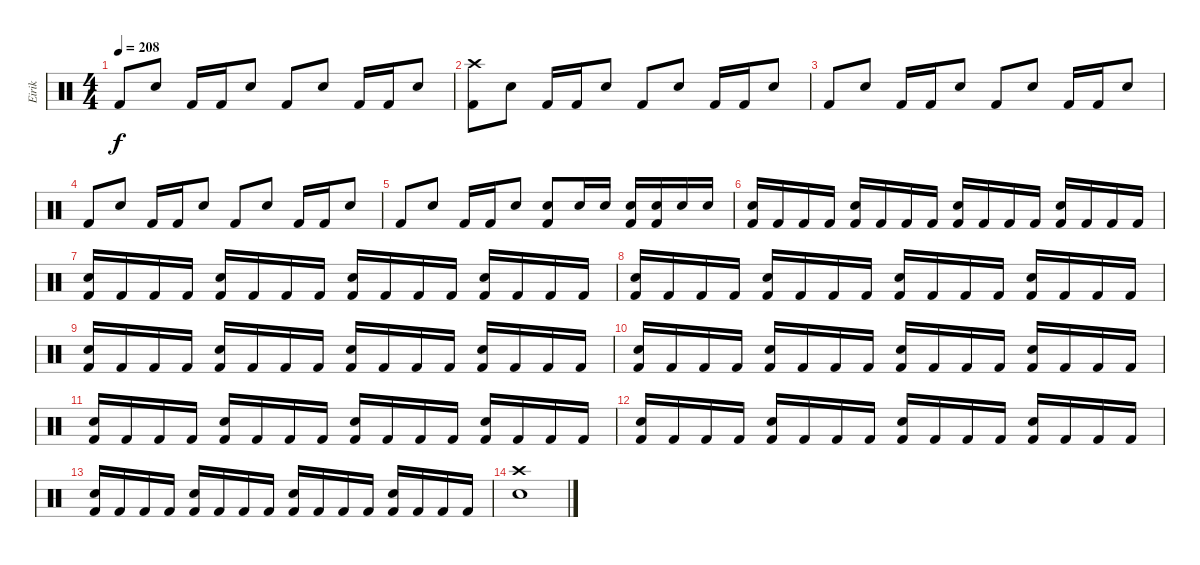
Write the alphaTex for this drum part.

\track ("Eirik" "Eirik") {instrument percussion}
\staff {score}
\articulation defaults
\ts (4 4)
\tempo 208
\clef neutral
\ks c "Kick (hit) 2".8{dy f} "Snare (hit) 2".8 "Kick (hit) 2".16 "Kick (hit) 2".16 "Snare (hit) 2".8 "Kick (hit) 2".8 "Snare (hit) 2".8 "Kick (hit) 2".16 "Kick (hit) 2".16 "Snare (hit) 2".8
|
("Crash high (hit)" "Kick (hit) 2").8 "Snare (hit) 2".8 "Kick (hit) 2".16 "Kick (hit) 2".16 "Snare (hit) 2".8 "Kick (hit) 2".8 "Snare (hit) 2".8 "Kick (hit) 2".16 "Kick (hit) 2".16 "Snare (hit) 2".8 |
"Kick (hit) 2".8 "Snare (hit) 2".8 "Kick (hit) 2".16 "Kick (hit) 2".16 "Snare (hit) 2".8 "Kick (hit) 2".8 "Snare (hit) 2".8 "Kick (hit) 2".16 "Kick (hit) 2".16 "Snare (hit) 2".8 |
"Kick (hit) 2".8 "Snare (hit) 2".8 "Kick (hit) 2".16 "Kick (hit) 2".16 "Snare (hit) 2".8 "Kick (hit) 2".8 "Snare (hit) 2".8 "Kick (hit) 2".16 "Kick (hit) 2".16 "Snare (hit) 2".8 |
"Kick (hit) 2".8 "Snare (hit) 2".8 "Kick (hit) 2".16 "Kick (hit) 2".16 "Snare (hit) 2".8 ("Snare (hit) 2" "Kick (hit) 2").8 "Snare (hit) 2".16 "Snare (hit) 2".16 ("Snare (hit) 2" "Kick (hit) 2").16 ("Snare (hit) 2" "Kick (hit) 2").16 "Snare (hit) 2".16 "Snare (hit) 2".16 |
("Snare (hit) 2" "Kick (hit) 2").16 "Kick (hit) 2".16 "Kick (hit) 2".16 "Kick (hit) 2".16 ("Snare (hit) 2" "Kick (hit) 2").16 "Kick (hit) 2".16 "Kick (hit) 2".16 "Kick (hit) 2".16 ("Snare (hit) 2" "Kick (hit) 2").16 "Kick (hit) 2".16 "Kick (hit) 2".16 "Kick (hit) 2".16 ("Snare (hit) 2" "Kick (hit) 2").16 "Kick (hit) 2".16 "Kick (hit) 2".16 "Kick (hit) 2".16 |
("Snare (hit) 2" "Kick (hit) 2").16 "Kick (hit) 2".16 "Kick (hit) 2".16 "Kick (hit) 2".16 ("Snare (hit) 2" "Kick (hit) 2").16 "Kick (hit) 2".16 "Kick (hit) 2".16 "Kick (hit) 2".16 ("Snare (hit) 2" "Kick (hit) 2").16 "Kick (hit) 2".16 "Kick (hit) 2".16 "Kick (hit) 2".16 ("Snare (hit) 2" "Kick (hit) 2").16 "Kick (hit) 2".16 "Kick (hit) 2".16 "Kick (hit) 2".16 |
("Snare (hit) 2" "Kick (hit) 2").16 "Kick (hit) 2".16 "Kick (hit) 2".16 "Kick (hit) 2".16 ("Snare (hit) 2" "Kick (hit) 2").16 "Kick (hit) 2".16 "Kick (hit) 2".16 "Kick (hit) 2".16 ("Snare (hit) 2" "Kick (hit) 2").16 "Kick (hit) 2".16 "Kick (hit) 2".16 "Kick (hit) 2".16 ("Snare (hit) 2" "Kick (hit) 2").16 "Kick (hit) 2".16 "Kick (hit) 2".16 "Kick (hit) 2".16 |
("Snare (hit) 2" "Kick (hit) 2").16 "Kick (hit) 2".16 "Kick (hit) 2".16 "Kick (hit) 2".16 ("Snare (hit) 2" "Kick (hit) 2").16 "Kick (hit) 2".16 "Kick (hit) 2".16 "Kick (hit) 2".16 ("Snare (hit) 2" "Kick (hit) 2").16 "Kick (hit) 2".16 "Kick (hit) 2".16 "Kick (hit) 2".16 ("Snare (hit) 2" "Kick (hit) 2").16 "Kick (hit) 2".16 "Kick (hit) 2".16 "Kick (hit) 2".16 |
("Snare (hit) 2" "Kick (hit) 2").16 "Kick (hit) 2".16 "Kick (hit) 2".16 "Kick (hit) 2".16 ("Snare (hit) 2" "Kick (hit) 2").16 "Kick (hit) 2".16 "Kick (hit) 2".16 "Kick (hit) 2".16 ("Snare (hit) 2" "Kick (hit) 2").16 "Kick (hit) 2".16 "Kick (hit) 2".16 "Kick (hit) 2".16 ("Snare (hit) 2" "Kick (hit) 2").16 "Kick (hit) 2".16 "Kick (hit) 2".16 "Kick (hit) 2".16 |
("Snare (hit) 2" "Kick (hit) 2").16 "Kick (hit) 2".16 "Kick (hit) 2".16 "Kick (hit) 2".16 ("Snare (hit) 2" "Kick (hit) 2").16 "Kick (hit) 2".16 "Kick (hit) 2".16 "Kick (hit) 2".16 ("Snare (hit) 2" "Kick (hit) 2").16 "Kick (hit) 2".16 "Kick (hit) 2".16 "Kick (hit) 2".16 ("Snare (hit) 2" "Kick (hit) 2").16 "Kick (hit) 2".16 "Kick (hit) 2".16 "Kick (hit) 2".16 |
("Snare (hit) 2" "Kick (hit) 2").16 "Kick (hit) 2".16 "Kick (hit) 2".16 "Kick (hit) 2".16 ("Snare (hit) 2" "Kick (hit) 2").16 "Kick (hit) 2".16 "Kick (hit) 2".16 "Kick (hit) 2".16 ("Snare (hit) 2" "Kick (hit) 2").16 "Kick (hit) 2".16 "Kick (hit) 2".16 "Kick (hit) 2".16 ("Snare (hit) 2" "Kick (hit) 2").16 "Kick (hit) 2".16 "Kick (hit) 2".16 "Kick (hit) 2".16 |
("Snare (hit) 2" "Kick (hit) 2").16 "Kick (hit) 2".16 "Kick (hit) 2".16 "Kick (hit) 2".16 ("Snare (hit) 2" "Kick (hit) 2").16 "Kick (hit) 2".16 "Kick (hit) 2".16 "Kick (hit) 2".16 ("Snare (hit) 2" "Kick (hit) 2").16 "Kick (hit) 2".16 "Kick (hit) 2".16 "Kick (hit) 2".16 ("Snare (hit) 2" "Kick (hit) 2").16 "Kick (hit) 2".16 "Kick (hit) 2".16 "Kick (hit) 2".16 |
("Crash high (hit)" "Snare (hit) 2").1
